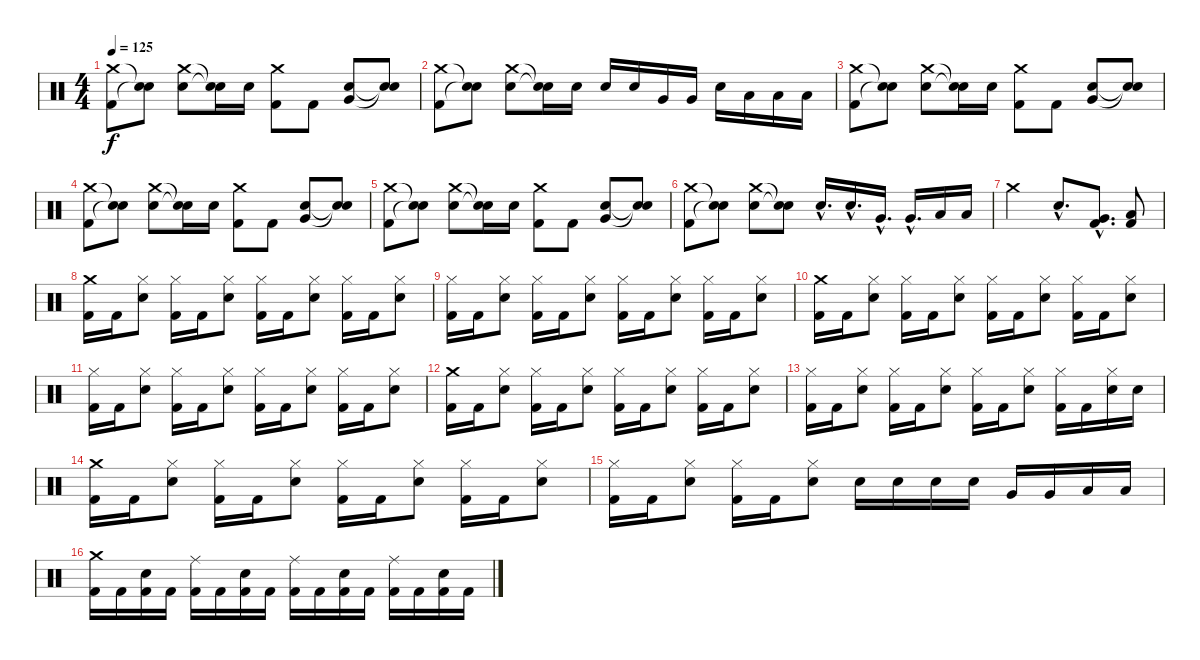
\track (" " " ") {instrument percussion}
\staff {score}
\articulation defaults
\ts (4 4)
\tempo 125
\clef neutral
\ks c
("Crash medium (hit)" "Kick (hit) 2").8{dy f} ("Snare (hit)"{t} "Snare (hit)"{t}).8 ("Crash medium (hit)" "Snare (hit) 2").8 ("Snare (hit)"{t} "Snare (hit)"{t}).16 "Snare (hit) 2".16 ("Crash medium (hit)" "Kick (hit) 2").8 "Kick (hit) 2".8 ("Snare (hit) 2" "Very Low Tom (hit)").8 ("Snare (hit)"{t} "Snare (hit)"{t}).8 |
("Crash medium (hit)" "Kick (hit) 2").8 ("Snare (hit)"{t} "Snare (hit)"{t}).8 ("Crash medium (hit)" "Snare (hit) 2").8 ("Snare (hit)"{t} "Snare (hit)"{t}).16 "Snare (hit) 2".16 "Snare (hit) 2".16 "Snare (hit) 2".16 "Very Low Tom (hit)".16 "Very Low Tom (hit)".16 "Snare (hit) 2".16 "Low Floor Tom (hit)".16 "Low Floor Tom (hit)".16 "Low Floor Tom (hit)".16 |
("Crash medium (hit)" "Kick (hit) 2").8 ("Snare (hit)"{t} "Snare (hit)"{t}).8 ("Crash medium (hit)" "Snare (hit) 2").8 ("Snare (hit)"{t} "Snare (hit)"{t}).16 "Snare (hit) 2".16 ("Crash medium (hit)" "Kick (hit) 2").8 "Kick (hit) 2".8 ("Snare (hit) 2" "Very Low Tom (hit)").8 ("Snare (hit)"{t} "Snare (hit)"{t}).8 |
("Crash medium (hit)" "Kick (hit) 2").8 ("Snare (hit)"{t} "Snare (hit)"{t}).8 ("Crash medium (hit)" "Snare (hit) 2").8 ("Snare (hit)"{t} "Snare (hit)"{t}).16 "Snare (hit) 2".16 ("Crash medium (hit)" "Kick (hit) 2").8 "Kick (hit) 2".8 ("Snare (hit) 2" "Very Low Tom (hit)").8 ("Snare (hit)"{t} "Snare (hit)"{t}).8 |
("Crash medium (hit)" "Kick (hit) 2").8 ("Snare (hit)"{t} "Snare (hit)"{t}).8 ("Crash medium (hit)" "Snare (hit) 2").8 ("Snare (hit)"{t} "Snare (hit)"{t}).16 "Snare (hit) 2".16 ("Crash medium (hit)" "Kick (hit) 2").8 "Kick (hit) 2".8 ("Snare (hit) 2" "Very Low Tom (hit)").8 ("Snare (hit)"{t} "Snare (hit)"{t}).8 |
("Crash medium (hit)" "Kick (hit) 2").8 ("Snare (hit)"{t} "Snare (hit)"{t}).8 ("Crash medium (hit)" "Snare (hit) 2").8 ("Snare (hit)"{t} "Snare (hit)"{t}).8 "Snare (hit) 2"{hac}.16{d} "Snare (hit) 2"{hac}.16{d} "Very Low Tom (hit)"{hac}.16{d} "Very Low Tom (hit)"{hac}.16{d} "Low Floor Tom (hit)".16 "Low Floor Tom (hit)".16 |
"Crash medium (hit)".2 "Snare (hit) 2"{hac}.8{d} ("Very Low Tom (hit)"{hac} "Kick (hit) 2"{hac}).8{d} ("Low Floor Tom (hit)" "Kick (hit) 2").8 |
("Crash medium (hit)" "Kick (hit) 2").16 "Kick (hit) 2".16 ("Hi-Hat (closed)" "Snare (hit) 2").8 ("Hi-Hat (closed)" "Kick (hit) 2").16 "Kick (hit) 2".16 ("Hi-Hat (closed)" "Snare (hit) 2").8 ("Hi-Hat (closed)" "Kick (hit) 2").16 "Kick (hit) 2".16 ("Hi-Hat (closed)" "Snare (hit) 2").8 ("Hi-Hat (closed)" "Kick (hit) 2").16 "Kick (hit) 2".16 ("Hi-Hat (closed)" "Snare (hit) 2").8 |
("Hi-Hat (closed)" "Kick (hit) 2").16 "Kick (hit) 2".16 ("Hi-Hat (closed)" "Snare (hit) 2").8 ("Hi-Hat (closed)" "Kick (hit) 2").16 "Kick (hit) 2".16 ("Hi-Hat (closed)" "Snare (hit) 2").8 ("Hi-Hat (closed)" "Kick (hit) 2").16 "Kick (hit) 2".16 ("Hi-Hat (closed)" "Snare (hit) 2").8 ("Hi-Hat (closed)" "Kick (hit) 2").16 "Kick (hit) 2".16 ("Hi-Hat (closed)" "Snare (hit) 2").8 |
("Crash medium (hit)" "Kick (hit) 2").16 "Kick (hit) 2".16 ("Hi-Hat (closed)" "Snare (hit) 2").8 ("Hi-Hat (closed)" "Kick (hit) 2").16 "Kick (hit) 2".16 ("Hi-Hat (closed)" "Snare (hit) 2").8 ("Hi-Hat (closed)" "Kick (hit) 2").16 "Kick (hit) 2".16 ("Hi-Hat (closed)" "Snare (hit) 2").8 ("Hi-Hat (closed)" "Kick (hit) 2").16 "Kick (hit) 2".16 ("Hi-Hat (closed)" "Snare (hit) 2").8 |
("Hi-Hat (closed)" "Kick (hit) 2").16 "Kick (hit) 2".16 ("Hi-Hat (closed)" "Snare (hit) 2").8 ("Hi-Hat (closed)" "Kick (hit) 2").16 "Kick (hit) 2".16 ("Hi-Hat (closed)" "Snare (hit) 2").8 ("Hi-Hat (closed)" "Kick (hit) 2").16 "Kick (hit) 2".16 ("Hi-Hat (closed)" "Snare (hit) 2").8 ("Hi-Hat (closed)" "Kick (hit) 2").16 "Kick (hit) 2".16 ("Hi-Hat (closed)" "Snare (hit) 2").8 |
("Crash medium (hit)" "Kick (hit) 2").16 "Kick (hit) 2".16 ("Hi-Hat (closed)" "Snare (hit) 2").8 ("Hi-Hat (closed)" "Kick (hit) 2").16 "Kick (hit) 2".16 ("Hi-Hat (closed)" "Snare (hit) 2").8 ("Hi-Hat (closed)" "Kick (hit) 2").16 "Kick (hit) 2".16 ("Hi-Hat (closed)" "Snare (hit) 2").8 ("Hi-Hat (closed)" "Kick (hit) 2").16 "Kick (hit) 2".16 ("Hi-Hat (closed)" "Snare (hit) 2").8 |
("Hi-Hat (closed)" "Kick (hit) 2").16 "Kick (hit) 2".16 ("Hi-Hat (closed)" "Snare (hit) 2").8 ("Hi-Hat (closed)" "Kick (hit) 2").16 "Kick (hit) 2".16 ("Hi-Hat (closed)" "Snare (hit) 2").8 ("Hi-Hat (closed)" "Kick (hit) 2").16 "Kick (hit) 2".16 ("Hi-Hat (closed)" "Snare (hit) 2").8 ("Hi-Hat (closed)" "Kick (hit) 2").16 "Kick (hit) 2".16 ("Hi-Hat (closed)" "Snare (hit) 2").16 "Snare (hit) 2".16 |
("Crash medium (hit)" "Kick (hit) 2").16 "Kick (hit) 2".16 ("Hi-Hat (closed)" "Snare (hit) 2").8 ("Hi-Hat (closed)" "Kick (hit) 2").16 "Kick (hit) 2".16 ("Hi-Hat (closed)" "Snare (hit) 2").8 ("Hi-Hat (closed)" "Kick (hit) 2").16 "Kick (hit) 2".16 ("Hi-Hat (closed)" "Snare (hit) 2").8 ("Hi-Hat (closed)" "Kick (hit) 2").16 "Kick (hit) 2".16 ("Hi-Hat (closed)" "Snare (hit) 2").8 |
("Hi-Hat (closed)" "Kick (hit) 2").16 "Kick (hit) 2".16 ("Hi-Hat (closed)" "Snare (hit) 2").8 ("Hi-Hat (closed)" "Kick (hit) 2").16 "Kick (hit) 2".16 ("Hi-Hat (closed)" "Snare (hit) 2").8 "Snare (hit) 2".16 "Snare (hit) 2".16 "Snare (hit) 2".16 "Snare (hit) 2".16 "Very Low Tom (hit)".16 "Very Low Tom (hit)".16 "Low Floor Tom (hit)".16 "Low Floor Tom (hit)".16 |
("Crash medium (hit)" "Kick (hit) 2").16 "Kick (hit) 2".16 ("Snare (hit) 2" "Kick (hit) 2").16 "Kick (hit) 2".16 ("Ride (middle)" "Kick (hit) 2").16 "Kick (hit) 2".16 ("Snare (hit) 2" "Kick (hit) 2").16 "Kick (hit) 2".16 ("Ride (middle)" "Kick (hit) 2").16 "Kick (hit) 2".16 ("Snare (hit) 2" "Kick (hit) 2").16 "Kick (hit) 2".16 ("Ride (middle)" "Kick (hit) 2").16 "Kick (hit) 2".16 ("Snare (hit) 2" "Kick (hit) 2").16 "Kick (hit) 2".16
